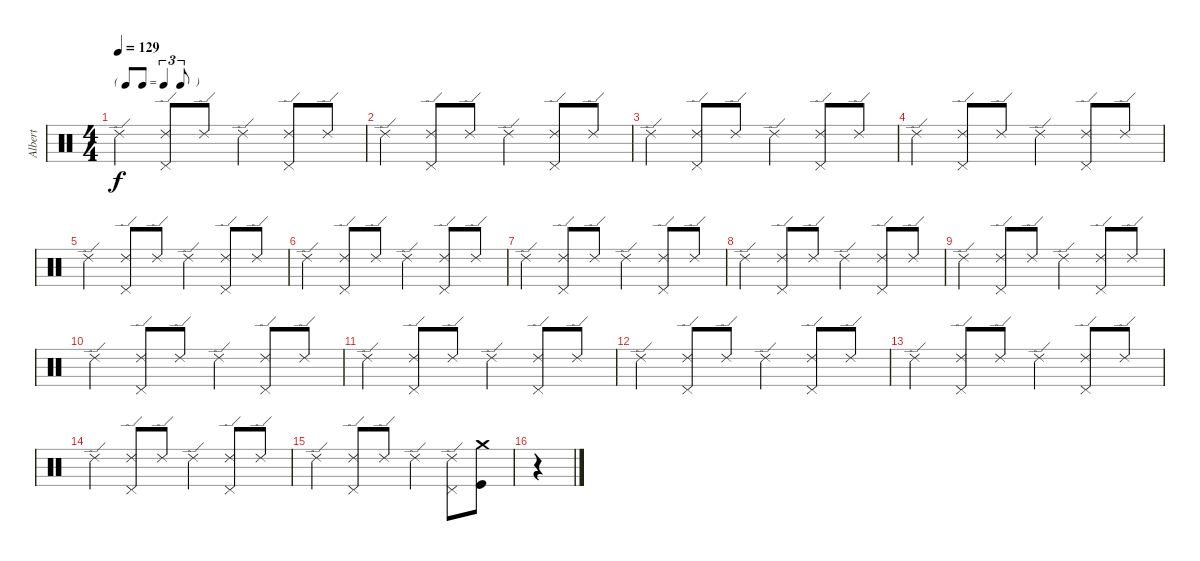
\track ("Albert" "Albert") {instrument percussion}
\staff {score}
\articulation defaults
\ts (4 4)
\tf triplet8th
\tempo 129
\clef neutral
\ks c "Ride (edge) 2".4{dy f}
("Ride (edge) 2" "Pedal Hi-Hat (hit)").8 "Ride (edge) 2".8 "Ride (edge) 2".4 ("Ride (edge) 2" "Pedal Hi-Hat (hit)").8 "Ride (edge) 2".8 |
"Ride (edge) 2".4 ("Ride (edge) 2" "Pedal Hi-Hat (hit)").8 "Ride (edge) 2".8 "Ride (edge) 2".4 ("Ride (edge) 2" "Pedal Hi-Hat (hit)").8 "Ride (edge) 2".8 |
"Ride (edge) 2".4 ("Ride (edge) 2" "Pedal Hi-Hat (hit)").8 "Ride (edge) 2".8 "Ride (edge) 2".4 ("Ride (edge) 2" "Pedal Hi-Hat (hit)").8 "Ride (edge) 2".8 |
"Ride (edge) 2".4 ("Ride (edge) 2" "Pedal Hi-Hat (hit)").8 "Ride (edge) 2".8 "Ride (edge) 2".4 ("Ride (edge) 2" "Pedal Hi-Hat (hit)").8 "Ride (edge) 2".8 |
"Ride (edge) 2".4 ("Ride (edge) 2" "Pedal Hi-Hat (hit)").8 "Ride (edge) 2".8 "Ride (edge) 2".4 ("Ride (edge) 2" "Pedal Hi-Hat (hit)").8 "Ride (edge) 2".8 |
"Ride (edge) 2".4 ("Ride (edge) 2" "Pedal Hi-Hat (hit)").8 "Ride (edge) 2".8 "Ride (edge) 2".4 ("Ride (edge) 2" "Pedal Hi-Hat (hit)").8 "Ride (edge) 2".8 |
"Ride (edge) 2".4 ("Ride (edge) 2" "Pedal Hi-Hat (hit)").8 "Ride (edge) 2".8 "Ride (edge) 2".4 ("Ride (edge) 2" "Pedal Hi-Hat (hit)").8 "Ride (edge) 2".8 |
"Ride (edge) 2".4 ("Ride (edge) 2" "Pedal Hi-Hat (hit)").8 "Ride (edge) 2".8 "Ride (edge) 2".4 ("Ride (edge) 2" "Pedal Hi-Hat (hit)").8 "Ride (edge) 2".8 |
"Ride (edge) 2".4 ("Ride (edge) 2" "Pedal Hi-Hat (hit)").8 "Ride (edge) 2".8 "Ride (edge) 2".4 ("Ride (edge) 2" "Pedal Hi-Hat (hit)").8 "Ride (edge) 2".8 |
"Ride (edge) 2".4 ("Ride (edge) 2" "Pedal Hi-Hat (hit)").8 "Ride (edge) 2".8 "Ride (edge) 2".4 ("Ride (edge) 2" "Pedal Hi-Hat (hit)").8 "Ride (edge) 2".8 |
"Ride (edge) 2".4 ("Ride (edge) 2" "Pedal Hi-Hat (hit)").8 "Ride (edge) 2".8 "Ride (edge) 2".4 ("Ride (edge) 2" "Pedal Hi-Hat (hit)").8 "Ride (edge) 2".8 |
"Ride (edge) 2".4 ("Ride (edge) 2" "Pedal Hi-Hat (hit)").8 "Ride (edge) 2".8 "Ride (edge) 2".4 ("Ride (edge) 2" "Pedal Hi-Hat (hit)").8 "Ride (edge) 2".8 |
"Ride (edge) 2".4 ("Ride (edge) 2" "Pedal Hi-Hat (hit)").8 "Ride (edge) 2".8 "Ride (edge) 2".4 ("Ride (edge) 2" "Pedal Hi-Hat (hit)").8 "Ride (edge) 2".8 |
"Ride (edge) 2".4 ("Ride (edge) 2" "Pedal Hi-Hat (hit)").8 "Ride (edge) 2".8 "Ride (edge) 2".4 ("Ride (edge) 2" "Pedal Hi-Hat (hit)").8 "Ride (edge) 2".8 |
"Ride (edge) 2".4 ("Ride (edge) 2" "Pedal Hi-Hat (hit)").8 "Ride (edge) 2".8 "Ride (edge) 2".4 ("Ride (edge) 2" "Pedal Hi-Hat (hit)").8 ("Crash medium (hit)" "Kick (hit)").8 |
r.4
